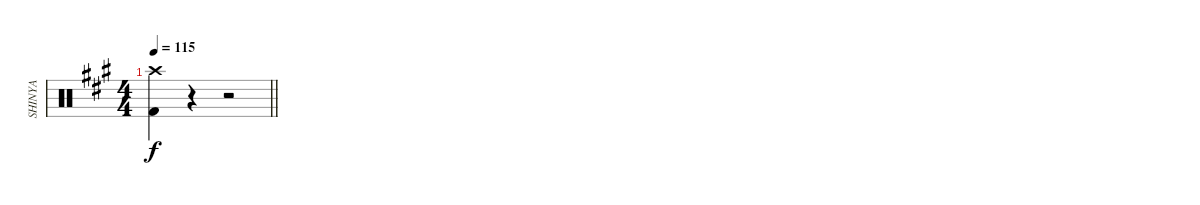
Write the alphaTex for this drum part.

\track ("SHINYA" "SHINYA") {instrument percussion}
\staff {score}
\articulation defaults
\ts (4 4)
\tempo 115
\clef neutral
\barLineRight lightlight
\ks a
("Crash high (hit)" "Kick (hit) 2").4{dy f} r.4 r.2
